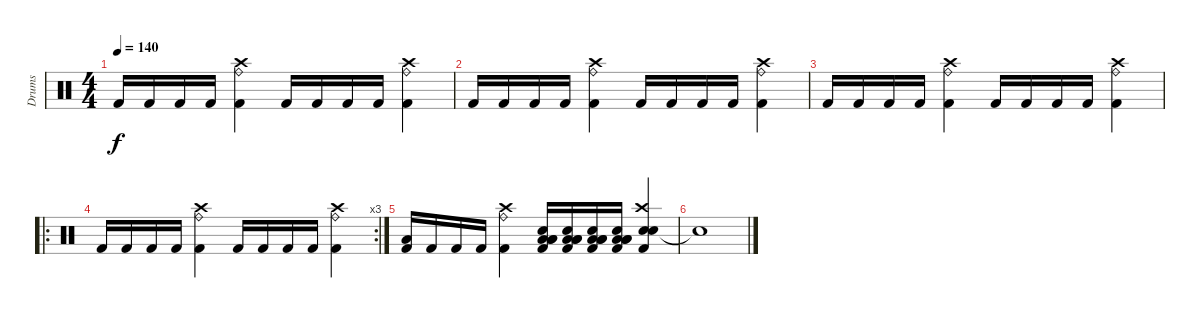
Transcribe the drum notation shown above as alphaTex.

\track ("Drums" "Drums") {instrument percussion}
\staff {score}
\articulation defaults
\ts (4 4)
\tempo 140
\clef neutral
\ks c "Kick (hit) 2".16{dy f} "Kick (hit) 2".16 "Kick (hit) 2".16 "Kick (hit) 2".16
("Crash high (hit)" "Ride (bell)" "Kick (hit) 2").4 "Kick (hit) 2".16 "Kick (hit) 2".16 "Kick (hit) 2".16 "Kick (hit) 2".16 ("Crash high (hit)" "Ride (bell)" "Kick (hit) 2").4 |
"Kick (hit) 2".16 "Kick (hit) 2".16 "Kick (hit) 2".16 "Kick (hit) 2".16 ("Crash high (hit)" "Ride (bell)" "Kick (hit) 2").4 "Kick (hit) 2".16 "Kick (hit) 2".16 "Kick (hit) 2".16 "Kick (hit) 2".16 ("Crash high (hit)" "Ride (bell)" "Kick (hit) 2").4 |
"Kick (hit) 2".16 "Kick (hit) 2".16 "Kick (hit) 2".16 "Kick (hit) 2".16 ("Crash high (hit)" "Ride (bell)" "Kick (hit) 2").4 "Kick (hit) 2".16 "Kick (hit) 2".16 "Kick (hit) 2".16 "Kick (hit) 2".16 ("Crash high (hit)" "Ride (bell)" "Kick (hit) 2").4 |
\ro
\rc 3 "Kick (hit) 2".16 "Kick (hit) 2".16 "Kick (hit) 2".16 "Kick (hit) 2".16
("Crash high (hit)" "Ride (bell)" "Kick (hit) 2").4 "Kick (hit) 2".16 "Kick (hit) 2".16 "Kick (hit) 2".16 "Kick (hit) 2".16 ("Crash high (hit)" "Ride (bell)" "Kick (hit) 2").4 |
("Low Tom (hit)" "Kick (hit) 2").16 "Kick (hit) 2".16 "Kick (hit) 2".16 "Kick (hit) 2".16 ("Crash high (hit)" "Ride (bell)" "Kick (hit) 2").4 ("Electric Snare (hit)" "Low Floor Tom (hit)" "Low Tom (hit)" "Low Tom (hit)" "Kick (hit) 2").16 ("Electric Snare (hit)" "Low Floor Tom (hit)" "Low Tom (hit)" "Low Tom (hit)" "Kick (hit) 2").16 ("Electric Snare (hit)" "Low Floor Tom (hit)" "Low Tom (hit)" "Low Tom (hit)" "Kick (hit) 2").16 ("Electric Snare (hit)" "Low Floor Tom (hit)" "Low Tom (hit)" "Low Tom (hit)" "Kick (hit) 2").16 ("Electric Snare (hit)" "Electric Snare (hit)" "Crash high (hit)" "Kick (hit) 2").4 |
"Snare (hit)"{t}.1
